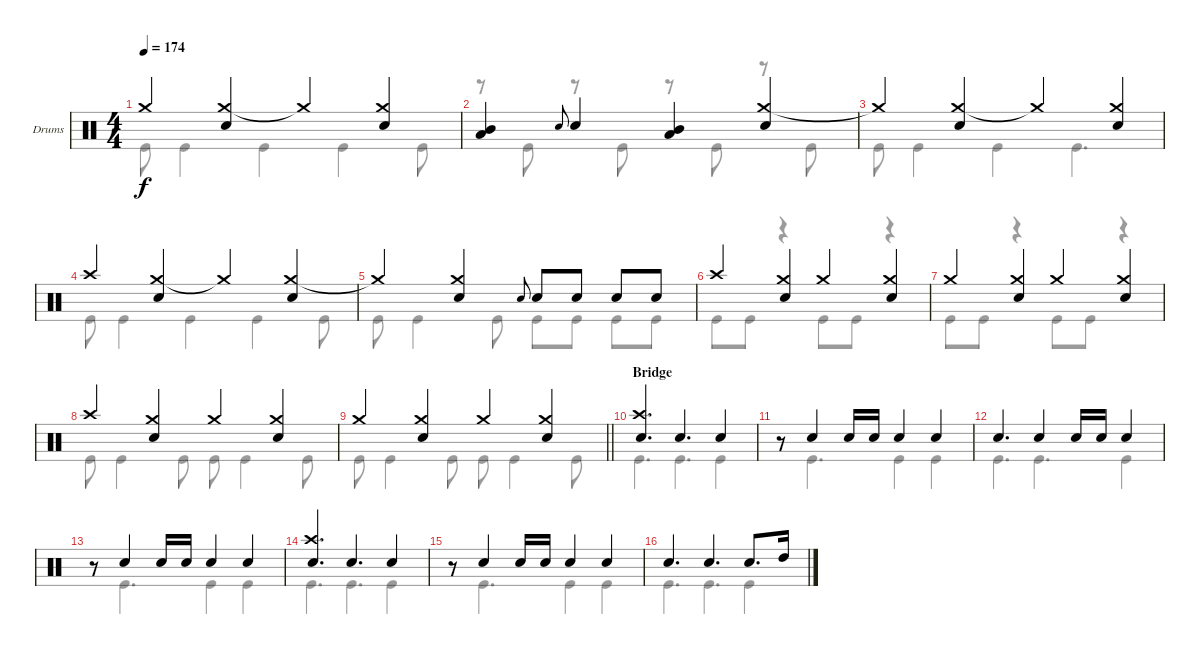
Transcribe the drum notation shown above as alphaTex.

\bracketExtendMode groupsimilarinstruments
\firstSystemTrackNameOrientation horizontal
\otherSystemsTrackNameOrientation horizontal
\track ("Drumkit" "Drums") {instrument percussion}
\staff {score}
\articulation defaults
\voice
\ts (4 4)
\tempo 174
\clef neutral
\ks c "Crash medium (hit)"{t}.4{dy f}
("Crash medium (hit)" "Snare (hit) 2").4 "Crash medium (hit)"{t}.4 ("Crash medium (hit)" "Snare (hit) 2").4 |
("Mid Tom (hit)" "Low Tom (hit)").4 "Snare (hit) 2".8{gr onbeat} "Snare (hit) 2".4 ("Mid Tom (hit)" "Low Tom (hit)").4 ("Crash medium (hit)" "Snare (hit) 2").4 |
"Crash medium (hit)"{t}.4 ("Crash medium (hit)" "Snare (hit) 2").4 "Crash medium (hit)"{t}.4 ("Crash medium (hit)" "Snare (hit) 2").4 |
"Crash high (hit)".4 ("Crash medium (hit)" "Snare (hit) 2").4 "Crash medium (hit)"{t}.4 ("Crash medium (hit)" "Snare (hit) 2").4 |
"Crash medium (hit)"{t}.4 ("Crash medium (hit)" "Snare (hit) 2").4 "Snare (hit) 2".8{gr onbeat} "Snare (hit) 2".8 "Snare (hit) 2".8 "Snare (hit) 2".8 "Snare (hit) 2".8 |
"Crash high (hit)".4 ("Crash medium (hit)" "Snare (hit) 2").4 "Crash medium (hit)".4 ("Crash medium (hit)" "Snare (hit) 2").4 |
"Crash medium (hit)".4 ("Crash medium (hit)" "Snare (hit) 2").4 "Crash medium (hit)".4 ("Crash medium (hit)" "Snare (hit) 2").4 |
"Crash high (hit)".4 ("Crash medium (hit)" "Snare (hit) 2").4 "Crash medium (hit)".4 ("Crash medium (hit)" "Snare (hit) 2").4 |
\barLineRight lightlight "Crash medium (hit)".4
("Crash medium (hit)" "Snare (hit) 2").4 "Crash medium (hit)".4 ("Crash medium (hit)" "Snare (hit) 2").4 |
\section ("" "Bridge")
("Crash high (hit)" "Snare (hit) 2").4{d} "Snare (hit) 2".4{d} "Snare (hit) 2".4 |
r.8 "Snare (hit) 2".4 "Snare (hit) 2".16 "Snare (hit) 2".16 "Snare (hit) 2".4 "Snare (hit) 2".4 |
"Snare (hit) 2".4{d} "Snare (hit) 2".4 "Snare (hit) 2".16 "Snare (hit) 2".16 "Snare (hit) 2".4 |
r.8 "Snare (hit) 2".4 "Snare (hit) 2".16 "Snare (hit) 2".16 "Snare (hit) 2".4 "Snare (hit) 2".4 |
("Crash high (hit)" "Snare (hit) 2").4{d} "Snare (hit) 2".4{d} "Snare (hit) 2".4 |
r.8 "Snare (hit) 2".4 "Snare (hit) 2".16 "Snare (hit) 2".16 "Snare (hit) 2".4 "Snare (hit) 2".4 |
"Snare (hit) 2".4{d} "Snare (hit) 2".4{d} "Snare (hit) 2".8{d} "High Tom (hit)".16
\voice
\clef neutral
\ottava regular
\simile none
\ks c "Kick (hit)".8{dy f} "Kick (hit)".4 "Kick (hit)".4 "Kick (hit)".4 "Kick (hit)".8
|
r.8 "Kick (hit)".8 r.8 "Kick (hit)".8 r.8 "Kick (hit)".8 r.8 "Kick (hit)".8 |
"Kick (hit)".8 "Kick (hit)".4 "Kick (hit)".4 "Kick (hit)".4{d} |
"Kick (hit)".8 "Kick (hit)".4 "Kick (hit)".4 "Kick (hit)".4 "Kick (hit)".8 |
"Kick (hit)".8 "Kick (hit)".4 "Kick (hit)".8 "Kick (hit)".8 "Kick (hit)".8 "Kick (hit)".8 "Kick (hit)".8 |
"Kick (hit)".8 "Kick (hit)".8 r.4 "Kick (hit)".8 "Kick (hit)".8 r.4 |
"Kick (hit)".8 "Kick (hit)".8 r.4 "Kick (hit)".8 "Kick (hit)".8 r.4 |
"Kick (hit)".8 "Kick (hit)".4 "Kick (hit)".8 "Kick (hit)".8 "Kick (hit)".4 "Kick (hit)".8 |
\barLineRight lightlight "Kick (hit)".8 "Kick (hit)".4 "Kick (hit)".8 "Kick (hit)".8 "Kick (hit)".4 "Kick (hit)".8
|
"Kick (hit)".4{d} "Kick (hit)".4{d} "Kick (hit)".4 |
r.8 "Kick (hit)".4{d} "Kick (hit)".4 "Kick (hit)".4 |
"Kick (hit)".4{d} "Kick (hit)".4{d} "Kick (hit)".4 |
r.8 "Kick (hit)".4{d} "Kick (hit)".4 "Kick (hit)".4 |
"Kick (hit)".4{d} "Kick (hit)".4{d} "Kick (hit)".4 |
r.8 "Kick (hit)".4{d} "Kick (hit)".4 "Kick (hit)".4 |
"Kick (hit)".4{d} "Kick (hit)".4{d} "Kick (hit)".4
